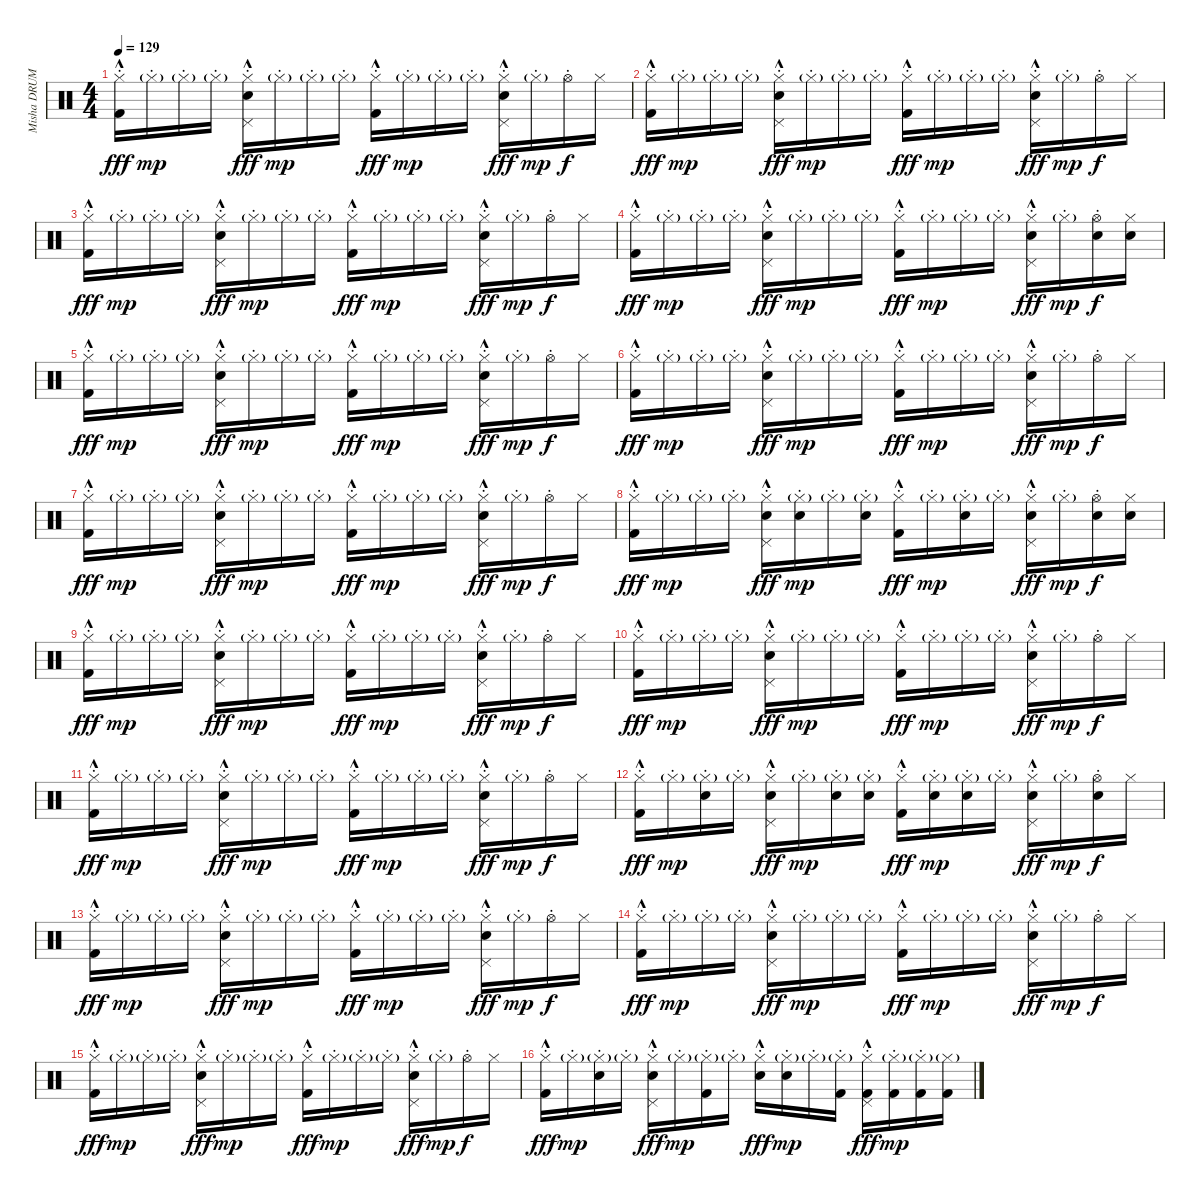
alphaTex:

\track ("Misha DRUMS" "Misha DRUM") {instrument percussion}
\staff {score}
\articulation defaults
\ts (4 4)
\tempo 129
\clef neutral
\ks c
("Hi-Hat (closed)"{hac st} "Kick (hit) 2").16{dy fff} "Hi-Hat (closed)"{g st}.16{dy mp} "Hi-Hat (closed)"{g st}.16 "Hi-Hat (closed)"{g st}.16 ("Hi-Hat (closed)"{hac st} "Pedal Hi-Hat (hit)" "Snare (hit) 2").16{dy fff} "Hi-Hat (closed)"{g st}.16{dy mp} "Hi-Hat (closed)"{g st}.16 "Hi-Hat (closed)"{g st}.16 ("Hi-Hat (closed)"{hac st} "Kick (hit) 2").16{dy fff} "Hi-Hat (closed)"{g st}.16{dy mp} "Hi-Hat (closed)"{g st}.16 "Hi-Hat (closed)"{g st}.16 ("Hi-Hat (closed)"{hac st} "Pedal Hi-Hat (hit)" "Snare (hit) 2").16{dy fff} "Hi-Hat (closed)"{g st}.16{dy mp} "Hi-Hat (open)"{st}.16{dy f} "Hi-Hat (closed)".16 |
("Hi-Hat (closed)"{hac st} "Kick (hit) 2").16{dy fff} "Hi-Hat (closed)"{g st}.16{dy mp} "Hi-Hat (closed)"{g st}.16 "Hi-Hat (closed)"{g st}.16 ("Hi-Hat (closed)"{hac st} "Pedal Hi-Hat (hit)" "Snare (hit) 2").16{dy fff} "Hi-Hat (closed)"{g st}.16{dy mp} "Hi-Hat (closed)"{g st}.16 "Hi-Hat (closed)"{g st}.16 ("Hi-Hat (closed)"{hac st} "Kick (hit) 2").16{dy fff} "Hi-Hat (closed)"{g st}.16{dy mp} "Hi-Hat (closed)"{g st}.16 "Hi-Hat (closed)"{g st}.16 ("Hi-Hat (closed)"{hac st} "Pedal Hi-Hat (hit)" "Snare (hit) 2").16{dy fff} "Hi-Hat (closed)"{g st}.16{dy mp} "Hi-Hat (open)"{st}.16{dy f} "Hi-Hat (closed)".16 |
("Hi-Hat (closed)"{hac st} "Kick (hit) 2").16{dy fff} "Hi-Hat (closed)"{g st}.16{dy mp} "Hi-Hat (closed)"{g st}.16 "Hi-Hat (closed)"{g st}.16 ("Hi-Hat (closed)"{hac st} "Pedal Hi-Hat (hit)" "Snare (hit) 2").16{dy fff} "Hi-Hat (closed)"{g st}.16{dy mp} "Hi-Hat (closed)"{g st}.16 "Hi-Hat (closed)"{g st}.16 ("Hi-Hat (closed)"{hac st} "Kick (hit) 2").16{dy fff} "Hi-Hat (closed)"{g st}.16{dy mp} "Hi-Hat (closed)"{g st}.16 "Hi-Hat (closed)"{g st}.16 ("Hi-Hat (closed)"{hac st} "Pedal Hi-Hat (hit)" "Snare (hit) 2").16{dy fff} "Hi-Hat (closed)"{g st}.16{dy mp} "Hi-Hat (open)"{st}.16{dy f} "Hi-Hat (closed)".16 |
("Hi-Hat (closed)"{hac st} "Kick (hit) 2").16{dy fff} "Hi-Hat (closed)"{g st}.16{dy mp} "Hi-Hat (closed)"{g st}.16 "Hi-Hat (closed)"{g st}.16 ("Hi-Hat (closed)"{hac st} "Pedal Hi-Hat (hit)" "Snare (hit) 2").16{dy fff} "Hi-Hat (closed)"{g st}.16{dy mp} "Hi-Hat (closed)"{g st}.16 "Hi-Hat (closed)"{g st}.16 ("Hi-Hat (closed)"{hac st} "Kick (hit) 2").16{dy fff} "Hi-Hat (closed)"{g st}.16{dy mp} "Hi-Hat (closed)"{g st}.16 "Hi-Hat (closed)"{g st}.16 ("Hi-Hat (closed)"{hac st} "Pedal Hi-Hat (hit)" "Snare (hit) 2").16{dy fff} "Hi-Hat (closed)"{g st}.16{dy mp} ("Hi-Hat (open)"{st} "Snare (hit) 2").16{dy f} ("Hi-Hat (closed)" "Snare (hit) 2").16 |
("Hi-Hat (closed)"{hac st} "Kick (hit) 2").16{dy fff} "Hi-Hat (closed)"{g st}.16{dy mp} "Hi-Hat (closed)"{g st}.16 "Hi-Hat (closed)"{g st}.16 ("Hi-Hat (closed)"{hac st} "Pedal Hi-Hat (hit)" "Snare (hit) 2").16{dy fff} "Hi-Hat (closed)"{g st}.16{dy mp} "Hi-Hat (closed)"{g st}.16 "Hi-Hat (closed)"{g st}.16 ("Hi-Hat (closed)"{hac st} "Kick (hit) 2").16{dy fff} "Hi-Hat (closed)"{g st}.16{dy mp} "Hi-Hat (closed)"{g st}.16 "Hi-Hat (closed)"{g st}.16 ("Hi-Hat (closed)"{hac st} "Pedal Hi-Hat (hit)" "Snare (hit) 2").16{dy fff} "Hi-Hat (closed)"{g st}.16{dy mp} "Hi-Hat (open)"{st}.16{dy f} "Hi-Hat (closed)".16 |
("Hi-Hat (closed)"{hac st} "Kick (hit) 2").16{dy fff} "Hi-Hat (closed)"{g st}.16{dy mp} "Hi-Hat (closed)"{g st}.16 "Hi-Hat (closed)"{g st}.16 ("Hi-Hat (closed)"{hac st} "Pedal Hi-Hat (hit)" "Snare (hit) 2").16{dy fff} "Hi-Hat (closed)"{g st}.16{dy mp} "Hi-Hat (closed)"{g st}.16 "Hi-Hat (closed)"{g st}.16 ("Hi-Hat (closed)"{hac st} "Kick (hit) 2").16{dy fff} "Hi-Hat (closed)"{g st}.16{dy mp} "Hi-Hat (closed)"{g st}.16 "Hi-Hat (closed)"{g st}.16 ("Hi-Hat (closed)"{hac st} "Pedal Hi-Hat (hit)" "Snare (hit) 2").16{dy fff} "Hi-Hat (closed)"{g st}.16{dy mp} "Hi-Hat (open)"{st}.16{dy f} "Hi-Hat (closed)".16 |
("Hi-Hat (closed)"{hac st} "Kick (hit) 2").16{dy fff} "Hi-Hat (closed)"{g st}.16{dy mp} "Hi-Hat (closed)"{g st}.16 "Hi-Hat (closed)"{g st}.16 ("Hi-Hat (closed)"{hac st} "Pedal Hi-Hat (hit)" "Snare (hit) 2").16{dy fff} "Hi-Hat (closed)"{g st}.16{dy mp} "Hi-Hat (closed)"{g st}.16 "Hi-Hat (closed)"{g st}.16 ("Hi-Hat (closed)"{hac st} "Kick (hit) 2").16{dy fff} "Hi-Hat (closed)"{g st}.16{dy mp} "Hi-Hat (closed)"{g st}.16 "Hi-Hat (closed)"{g st}.16 ("Hi-Hat (closed)"{hac st} "Pedal Hi-Hat (hit)" "Snare (hit) 2").16{dy fff} "Hi-Hat (closed)"{g st}.16{dy mp} "Hi-Hat (open)"{st}.16{dy f} "Hi-Hat (closed)".16 |
("Hi-Hat (closed)"{hac st} "Kick (hit) 2").16{dy fff} "Hi-Hat (closed)"{g st}.16{dy mp} "Hi-Hat (closed)"{g st}.16 "Hi-Hat (closed)"{g st}.16 ("Hi-Hat (closed)"{hac st} "Pedal Hi-Hat (hit)" "Snare (hit) 2").16{dy fff} ("Hi-Hat (closed)"{g st} "Snare (hit) 2").16{dy mp} "Hi-Hat (closed)"{g st}.16 ("Hi-Hat (closed)"{g st} "Snare (hit) 2").16 ("Hi-Hat (closed)"{hac st} "Kick (hit) 2").16{dy fff} "Hi-Hat (closed)"{g st}.16{dy mp} ("Hi-Hat (closed)"{g st} "Snare (hit) 2").16 "Hi-Hat (closed)"{g st}.16 ("Hi-Hat (closed)"{hac st} "Pedal Hi-Hat (hit)" "Snare (hit) 2").16{dy fff} "Hi-Hat (closed)"{g st}.16{dy mp} ("Hi-Hat (open)"{st} "Snare (hit) 2").16{dy f} ("Hi-Hat (closed)" "Snare (hit) 2").16 |
("Hi-Hat (closed)"{hac st} "Kick (hit) 2").16{dy fff} "Hi-Hat (closed)"{g st}.16{dy mp} "Hi-Hat (closed)"{g st}.16 "Hi-Hat (closed)"{g st}.16 ("Hi-Hat (closed)"{hac st} "Pedal Hi-Hat (hit)" "Snare (hit) 2").16{dy fff} "Hi-Hat (closed)"{g st}.16{dy mp} "Hi-Hat (closed)"{g st}.16 "Hi-Hat (closed)"{g st}.16 ("Hi-Hat (closed)"{hac st} "Kick (hit) 2").16{dy fff} "Hi-Hat (closed)"{g st}.16{dy mp} "Hi-Hat (closed)"{g st}.16 "Hi-Hat (closed)"{g st}.16 ("Hi-Hat (closed)"{hac st} "Pedal Hi-Hat (hit)" "Snare (hit) 2").16{dy fff} "Hi-Hat (closed)"{g st}.16{dy mp} "Hi-Hat (open)"{st}.16{dy f} "Hi-Hat (closed)".16 |
("Hi-Hat (closed)"{hac st} "Kick (hit) 2").16{dy fff} "Hi-Hat (closed)"{g st}.16{dy mp} "Hi-Hat (closed)"{g st}.16 "Hi-Hat (closed)"{g st}.16 ("Hi-Hat (closed)"{hac st} "Pedal Hi-Hat (hit)" "Snare (hit) 2").16{dy fff} "Hi-Hat (closed)"{g st}.16{dy mp} "Hi-Hat (closed)"{g st}.16 "Hi-Hat (closed)"{g st}.16 ("Hi-Hat (closed)"{hac st} "Kick (hit) 2").16{dy fff} "Hi-Hat (closed)"{g st}.16{dy mp} "Hi-Hat (closed)"{g st}.16 "Hi-Hat (closed)"{g st}.16 ("Hi-Hat (closed)"{hac st} "Pedal Hi-Hat (hit)" "Snare (hit) 2").16{dy fff} "Hi-Hat (closed)"{g st}.16{dy mp} "Hi-Hat (open)"{st}.16{dy f} "Hi-Hat (closed)".16 |
("Hi-Hat (closed)"{hac st} "Kick (hit) 2").16{dy fff} "Hi-Hat (closed)"{g st}.16{dy mp} "Hi-Hat (closed)"{g st}.16 "Hi-Hat (closed)"{g st}.16 ("Hi-Hat (closed)"{hac st} "Pedal Hi-Hat (hit)" "Snare (hit) 2").16{dy fff} "Hi-Hat (closed)"{g st}.16{dy mp} "Hi-Hat (closed)"{g st}.16 "Hi-Hat (closed)"{g st}.16 ("Hi-Hat (closed)"{hac st} "Kick (hit) 2").16{dy fff} "Hi-Hat (closed)"{g st}.16{dy mp} "Hi-Hat (closed)"{g st}.16 "Hi-Hat (closed)"{g st}.16 ("Hi-Hat (closed)"{hac st} "Pedal Hi-Hat (hit)" "Snare (hit) 2").16{dy fff} "Hi-Hat (closed)"{g st}.16{dy mp} "Hi-Hat (open)"{st}.16{dy f} "Hi-Hat (closed)".16 |
("Hi-Hat (closed)"{hac st} "Kick (hit) 2").16{dy fff} "Hi-Hat (closed)"{g st}.16{dy mp} ("Hi-Hat (closed)"{g st} "Snare (hit) 2").16 "Hi-Hat (closed)"{g st}.16 ("Hi-Hat (closed)"{hac st} "Pedal Hi-Hat (hit)" "Snare (hit) 2").16{dy fff} "Hi-Hat (closed)"{g st}.16{dy mp} ("Hi-Hat (closed)"{g st} "Snare (hit) 2").16 ("Hi-Hat (closed)"{g st} "Snare (hit) 2").16 ("Hi-Hat (closed)"{hac st} "Kick (hit) 2").16{dy fff} ("Hi-Hat (closed)"{g st} "Snare (hit) 2").16{dy mp} ("Hi-Hat (closed)"{g st} "Snare (hit) 2").16 "Hi-Hat (closed)"{g st}.16 ("Hi-Hat (closed)"{hac st} "Pedal Hi-Hat (hit)" "Snare (hit) 2").16{dy fff} "Hi-Hat (closed)"{g st}.16{dy mp} ("Hi-Hat (open)"{st} "Snare (hit) 2").16{dy f} "Hi-Hat (closed)".16 |
("Hi-Hat (closed)"{hac st} "Kick (hit) 2").16{dy fff} "Hi-Hat (closed)"{g st}.16{dy mp} "Hi-Hat (closed)"{g st}.16 "Hi-Hat (closed)"{g st}.16 ("Hi-Hat (closed)"{hac st} "Pedal Hi-Hat (hit)" "Snare (hit) 2").16{dy fff} "Hi-Hat (closed)"{g st}.16{dy mp} "Hi-Hat (closed)"{g st}.16 "Hi-Hat (closed)"{g st}.16 ("Hi-Hat (closed)"{hac st} "Kick (hit) 2").16{dy fff} "Hi-Hat (closed)"{g st}.16{dy mp} "Hi-Hat (closed)"{g st}.16 "Hi-Hat (closed)"{g st}.16 ("Hi-Hat (closed)"{hac st} "Pedal Hi-Hat (hit)" "Snare (hit) 2").16{dy fff} "Hi-Hat (closed)"{g st}.16{dy mp} "Hi-Hat (open)"{st}.16{dy f} "Hi-Hat (closed)".16 |
("Hi-Hat (closed)"{hac st} "Kick (hit) 2").16{dy fff} "Hi-Hat (closed)"{g st}.16{dy mp} "Hi-Hat (closed)"{g st}.16 "Hi-Hat (closed)"{g st}.16 ("Hi-Hat (closed)"{hac st} "Pedal Hi-Hat (hit)" "Snare (hit) 2").16{dy fff} "Hi-Hat (closed)"{g st}.16{dy mp} "Hi-Hat (closed)"{g st}.16 "Hi-Hat (closed)"{g st}.16 ("Hi-Hat (closed)"{hac st} "Kick (hit) 2").16{dy fff} "Hi-Hat (closed)"{g st}.16{dy mp} "Hi-Hat (closed)"{g st}.16 "Hi-Hat (closed)"{g st}.16 ("Hi-Hat (closed)"{hac st} "Pedal Hi-Hat (hit)" "Snare (hit) 2").16{dy fff} "Hi-Hat (closed)"{g st}.16{dy mp} "Hi-Hat (open)"{st}.16{dy f} "Hi-Hat (closed)".16 |
("Hi-Hat (closed)"{hac st} "Kick (hit) 2").16{dy fff} "Hi-Hat (closed)"{g st}.16{dy mp} "Hi-Hat (closed)"{g st}.16 "Hi-Hat (closed)"{g st}.16 ("Hi-Hat (closed)"{hac st} "Pedal Hi-Hat (hit)" "Snare (hit) 2").16{dy fff} "Hi-Hat (closed)"{g st}.16{dy mp} "Hi-Hat (closed)"{g st}.16 "Hi-Hat (closed)"{g st}.16 ("Hi-Hat (closed)"{hac st} "Kick (hit) 2").16{dy fff} "Hi-Hat (closed)"{g st}.16{dy mp} "Hi-Hat (closed)"{g st}.16 "Hi-Hat (closed)"{g st}.16 ("Hi-Hat (closed)"{hac st} "Pedal Hi-Hat (hit)" "Snare (hit) 2").16{dy fff} "Hi-Hat (closed)"{g st}.16{dy mp} "Hi-Hat (open)"{st}.16{dy f} "Hi-Hat (closed)".16 |
("Hi-Hat (closed)"{hac st} "Kick (hit) 2").16{dy fff} "Hi-Hat (closed)"{g st}.16{dy mp} ("Hi-Hat (closed)"{g st} "Snare (hit) 2").16 "Hi-Hat (closed)"{g st}.16 ("Hi-Hat (closed)"{hac st} "Pedal Hi-Hat (hit)" "Snare (hit) 2").16{dy fff} "Hi-Hat (closed)"{g st}.16{dy mp} ("Hi-Hat (closed)"{g st} "Kick (hit) 2").16 "Hi-Hat (closed)"{g st}.16 ("Hi-Hat (closed)"{hac st} "Snare (hit) 2").16{dy fff} ("Hi-Hat (closed)"{g st} "Snare (hit) 2").16{dy mp} "Hi-Hat (closed)"{g st}.16 ("Hi-Hat (closed)"{g st} "Kick (hit) 2").16 ("Hi-Hat (closed)"{hac st} "Pedal Hi-Hat (hit)" "Kick (hit) 2").16{dy fff} ("Hi-Hat (closed)"{g st} "Kick (hit) 2").16{dy mp} ("Hi-Hat (closed)"{g st} "Kick (hit) 2").16 ("Hi-Hat (closed)"{g} "Kick (hit) 2").16
